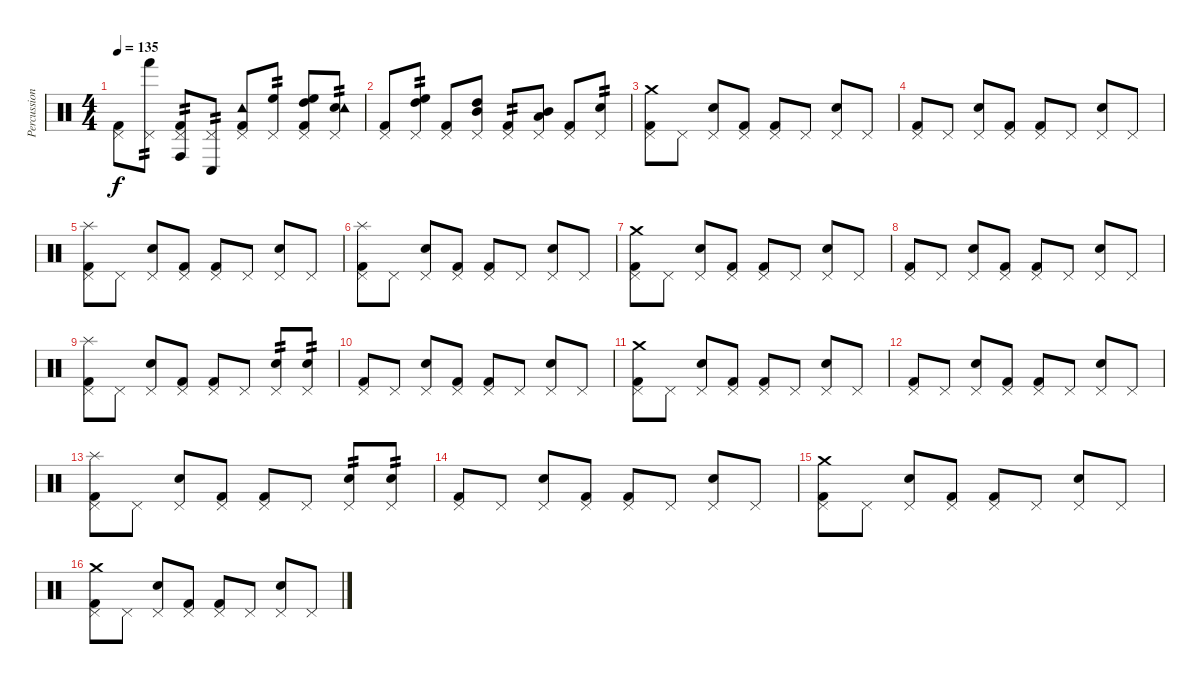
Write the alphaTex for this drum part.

\track ("Percussion" "Percussion") {instrument percussion}
\staff {score}
\articulation defaults
\ts (4 4)
\tempo 135
\clef neutral
\ks c
("Kick (hit) 2" "Pedal Hi-Hat (hit)").8{dy f} ("Hand (hit)" "Pedal Hi-Hat (hit)").8{tp 2} ("Kick (hit) 2" "Conga high (hit)" "Pedal Hi-Hat (hit)").8{tp 2} ("Conga low (hit)" "Pedal Hi-Hat (hit)").8{tp 2} ("Kick (hit) 2" "Tambourine (hit)" "Pedal Hi-Hat (hit)").8 ("High Floor Tom (hit)" "Pedal Hi-Hat (hit)").8{tp 2} ("Kick (hit) 2" "High Floor Tom (hit)" "High Tom (hit)" "Pedal Hi-Hat (hit)").8 ("Snare (hit) 2" "Tambourine (hit)" "Pedal Hi-Hat (hit)").8{tp 2} |
("Kick (hit) 2" "Pedal Hi-Hat (hit)").8 ("High Floor Tom (hit)" "High Tom (hit)" "Pedal Hi-Hat (hit)").8{tp 2} ("Kick (hit) 2" "Pedal Hi-Hat (hit)").8 ("High Tom (hit)" "Mid Tom (hit)" "Pedal Hi-Hat (hit)").8 ("Kick (hit) 2" "Pedal Hi-Hat (hit)").8{tp 2} ("Mid Tom (hit)" "Low Tom (hit)" "Pedal Hi-Hat (hit)").8 ("Kick (hit) 2" "Pedal Hi-Hat (hit)").8 ("Snare (hit) 2" "Pedal Hi-Hat (hit)").8{tp 2} |
("Kick (hit) 2" "Crash medium (hit)" "Pedal Hi-Hat (hit)").8 "Pedal Hi-Hat (hit)".8 ("Snare (hit) 2" "Pedal Hi-Hat (hit)").8 ("Kick (hit) 2" "Pedal Hi-Hat (hit)").8 ("Kick (hit) 2" "Pedal Hi-Hat (hit)").8 "Pedal Hi-Hat (hit)".8 ("Snare (hit) 2" "Pedal Hi-Hat (hit)").8 "Pedal Hi-Hat (hit)".8 |
("Kick (hit) 2" "Pedal Hi-Hat (hit)").8 "Pedal Hi-Hat (hit)".8 ("Snare (hit) 2" "Pedal Hi-Hat (hit)").8 ("Kick (hit) 2" "Pedal Hi-Hat (hit)").8 ("Kick (hit) 2" "Pedal Hi-Hat (hit)").8 "Pedal Hi-Hat (hit)".8 ("Snare (hit) 2" "Pedal Hi-Hat (hit)").8 "Pedal Hi-Hat (hit)".8 |
("Kick (hit) 2" "Splash (hit)" "Pedal Hi-Hat (hit)").8 "Pedal Hi-Hat (hit)".8 ("Snare (hit) 2" "Pedal Hi-Hat (hit)").8 ("Kick (hit) 2" "Pedal Hi-Hat (hit)").8 ("Kick (hit) 2" "Pedal Hi-Hat (hit)").8 "Pedal Hi-Hat (hit)".8 ("Snare (hit) 2" "Pedal Hi-Hat (hit)").8 "Pedal Hi-Hat (hit)".8 |
("Kick (hit) 2" "Splash (hit)" "Pedal Hi-Hat (hit)").8 "Pedal Hi-Hat (hit)".8 ("Snare (hit) 2" "Pedal Hi-Hat (hit)").8 ("Kick (hit) 2" "Pedal Hi-Hat (hit)").8 ("Kick (hit) 2" "Pedal Hi-Hat (hit)").8 "Pedal Hi-Hat (hit)".8 ("Snare (hit) 2" "Pedal Hi-Hat (hit)").8 "Pedal Hi-Hat (hit)".8 |
("Kick (hit) 2" "Crash medium (hit)" "Pedal Hi-Hat (hit)").8 "Pedal Hi-Hat (hit)".8 ("Snare (hit) 2" "Pedal Hi-Hat (hit)").8 ("Kick (hit) 2" "Pedal Hi-Hat (hit)").8 ("Kick (hit) 2" "Pedal Hi-Hat (hit)").8 "Pedal Hi-Hat (hit)".8 ("Snare (hit) 2" "Pedal Hi-Hat (hit)").8 "Pedal Hi-Hat (hit)".8 |
("Kick (hit) 2" "Pedal Hi-Hat (hit)").8 "Pedal Hi-Hat (hit)".8 ("Snare (hit) 2" "Pedal Hi-Hat (hit)").8 ("Kick (hit) 2" "Pedal Hi-Hat (hit)").8 ("Kick (hit) 2" "Pedal Hi-Hat (hit)").8 "Pedal Hi-Hat (hit)".8 ("Snare (hit) 2" "Pedal Hi-Hat (hit)").8 "Pedal Hi-Hat (hit)".8 |
("Kick (hit) 2" "Splash (hit)" "Pedal Hi-Hat (hit)").8 "Pedal Hi-Hat (hit)".8 ("Snare (hit) 2" "Pedal Hi-Hat (hit)").8 ("Kick (hit) 2" "Pedal Hi-Hat (hit)").8 ("Kick (hit) 2" "Pedal Hi-Hat (hit)").8 "Pedal Hi-Hat (hit)".8 ("Snare (hit) 2" "Pedal Hi-Hat (hit)").8{tp 2} ("Snare (hit) 2" "Pedal Hi-Hat (hit)").8{tp 2} |
("Kick (hit) 2" "Pedal Hi-Hat (hit)").8 "Pedal Hi-Hat (hit)".8 ("Snare (hit) 2" "Pedal Hi-Hat (hit)").8 ("Kick (hit) 2" "Pedal Hi-Hat (hit)").8 ("Kick (hit) 2" "Pedal Hi-Hat (hit)").8 "Pedal Hi-Hat (hit)".8 ("Snare (hit) 2" "Pedal Hi-Hat (hit)").8 "Pedal Hi-Hat (hit)".8 |
("Kick (hit) 2" "Crash medium (hit)" "Pedal Hi-Hat (hit)").8 "Pedal Hi-Hat (hit)".8 ("Snare (hit) 2" "Pedal Hi-Hat (hit)").8 ("Kick (hit) 2" "Pedal Hi-Hat (hit)").8 ("Kick (hit) 2" "Pedal Hi-Hat (hit)").8 "Pedal Hi-Hat (hit)".8 ("Snare (hit) 2" "Pedal Hi-Hat (hit)").8 "Pedal Hi-Hat (hit)".8 |
("Kick (hit) 2" "Pedal Hi-Hat (hit)").8 "Pedal Hi-Hat (hit)".8 ("Snare (hit) 2" "Pedal Hi-Hat (hit)").8 ("Kick (hit) 2" "Pedal Hi-Hat (hit)").8 ("Kick (hit) 2" "Pedal Hi-Hat (hit)").8 "Pedal Hi-Hat (hit)".8 ("Snare (hit) 2" "Pedal Hi-Hat (hit)").8 "Pedal Hi-Hat (hit)".8 |
("Kick (hit) 2" "Splash (hit)" "Pedal Hi-Hat (hit)").8 "Pedal Hi-Hat (hit)".8 ("Snare (hit) 2" "Pedal Hi-Hat (hit)").8 ("Kick (hit) 2" "Pedal Hi-Hat (hit)").8 ("Kick (hit) 2" "Pedal Hi-Hat (hit)").8 "Pedal Hi-Hat (hit)".8 ("Snare (hit) 2" "Pedal Hi-Hat (hit)").8{tp 2} ("Snare (hit) 2" "Pedal Hi-Hat (hit)").8{tp 2} |
("Kick (hit) 2" "Pedal Hi-Hat (hit)").8 "Pedal Hi-Hat (hit)".8 ("Snare (hit) 2" "Pedal Hi-Hat (hit)").8 ("Kick (hit) 2" "Pedal Hi-Hat (hit)").8 ("Kick (hit) 2" "Pedal Hi-Hat (hit)").8 "Pedal Hi-Hat (hit)".8 ("Snare (hit) 2" "Pedal Hi-Hat (hit)").8 "Pedal Hi-Hat (hit)".8 |
("Kick (hit) 2" "Crash medium (hit)" "Pedal Hi-Hat (hit)").8 "Pedal Hi-Hat (hit)".8 ("Snare (hit) 2" "Pedal Hi-Hat (hit)").8 ("Kick (hit) 2" "Pedal Hi-Hat (hit)").8 ("Kick (hit) 2" "Pedal Hi-Hat (hit)").8 "Pedal Hi-Hat (hit)".8 ("Snare (hit) 2" "Pedal Hi-Hat (hit)").8 "Pedal Hi-Hat (hit)".8 |
("Kick (hit) 2" "Crash medium (hit)" "Pedal Hi-Hat (hit)").8 "Pedal Hi-Hat (hit)".8 ("Snare (hit) 2" "Pedal Hi-Hat (hit)").8 ("Kick (hit) 2" "Pedal Hi-Hat (hit)").8 ("Kick (hit) 2" "Pedal Hi-Hat (hit)").8 "Pedal Hi-Hat (hit)".8 ("Snare (hit) 2" "Pedal Hi-Hat (hit)").8 "Pedal Hi-Hat (hit)".8
